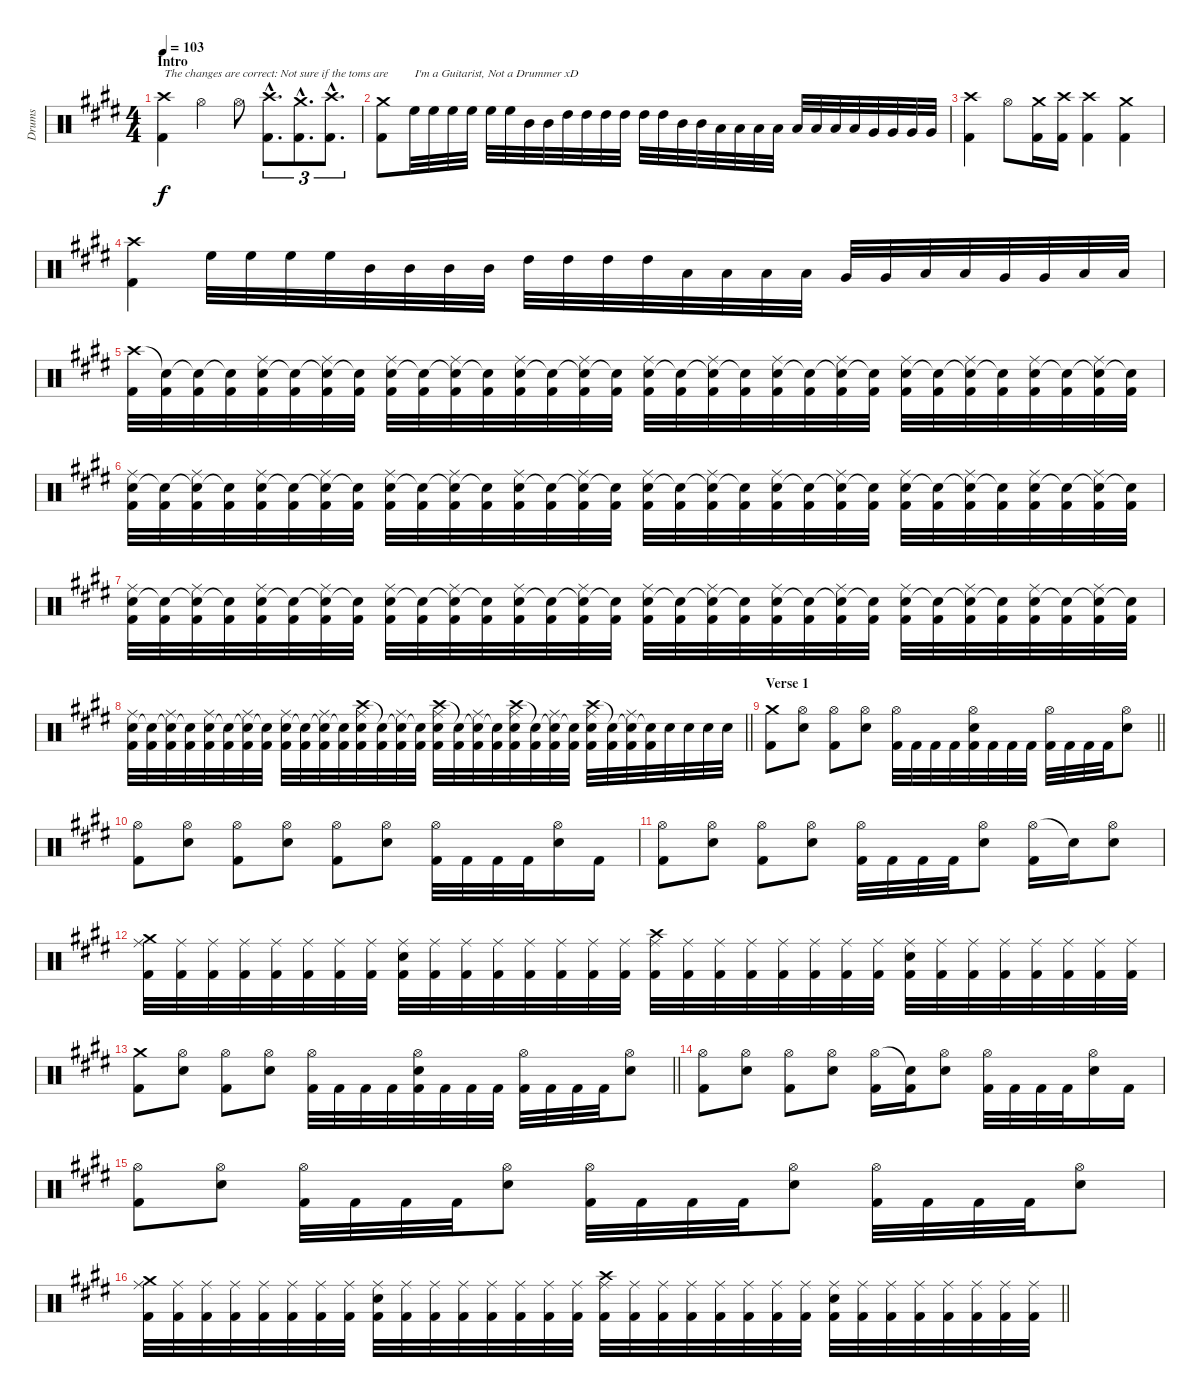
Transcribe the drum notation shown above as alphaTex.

\track ("Drums" "Drums") {instrument percussion}
\staff {score}
\articulation defaults
\ts (4 4)
\section ("" "Intro")
\tempo 103
\clef neutral
\ks c#minor
("Crash high (hit)" "Kick (hit) 2").4{txt "The changes are correct: Not sure if the toms are" dy f} "Hi-Hat (open)".4 "Hi-Hat (open)".8 ("Crash high (hit)"{hac} "Kick (hit) 2"{hac}).8{d tu (3 2)} ("Crash medium (hit)"{hac} "Kick (hit) 2"{hac}).8{d tu (3 2)} ("Crash high (hit)"{hac} "Kick (hit) 2"{hac}).8{d tu (3 2)} |
("Crash medium (hit)" "Kick (hit) 2").8 "High Floor Tom (hit)".32{txt "I'm a Guitarist, Not a Drummer xD"} "High Floor Tom (hit)".32 "High Floor Tom (hit)".32 "High Floor Tom (hit)".32 "High Floor Tom (hit)".32 "High Floor Tom (hit)".32 "Mid Tom (hit)".32 "Mid Tom (hit)".32 "High Tom (hit)".32 "High Tom (hit)".32 "High Tom (hit)".32 "High Tom (hit)".32 "High Tom (hit)".32 "High Tom (hit)".32 "Mid Tom (hit)".32 "Mid Tom (hit)".32 "Low Tom (hit)".32 "Low Tom (hit)".32 "Low Tom (hit)".32 "Low Tom (hit)".32 "Low Tom (hit)".32 "Low Tom (hit)".32 "Low Floor Tom (hit)".32 "Low Floor Tom (hit)".32 "Very Low Tom (hit)".32 "Very Low Tom (hit)".32 "Very Low Tom (hit)".32 "Very Low Tom (hit)".32 |
("Crash high (hit)" "Kick (hit) 2").4 "Hi-Hat (open)".8 ("Crash medium (hit)" "Kick (hit) 2").16 ("Crash high (hit)" "Kick (hit) 2").16 ("Crash high (hit)" "Kick (hit) 2").4 ("Crash medium (hit)" "Kick (hit) 2").4 |
("Crash high (hit)" "Kick (hit) 2").4 "High Floor Tom (hit)".32 "High Floor Tom (hit)".32 "High Floor Tom (hit)".32 "High Floor Tom (hit)".32 "Mid Tom (hit)".32 "Mid Tom (hit)".32 "Mid Tom (hit)".32 "Mid Tom (hit)".32 "High Tom (hit)".32 "High Tom (hit)".32 "High Tom (hit)".32 "High Tom (hit)".32 "Low Tom (hit)".32 "Low Tom (hit)".32 "Low Tom (hit)".32 "Low Tom (hit)".32 "Very Low Tom (hit)".32 "Very Low Tom (hit)".32 "Low Floor Tom (hit)".32 "Low Floor Tom (hit)".32 "Very Low Tom (hit)".32 "Very Low Tom (hit)".32 "Low Floor Tom (hit)".32 "Low Floor Tom (hit)".32 |
("Crash high (hit)" "Kick (hit) 2").32 ("Snare (hit)"{t} "Kick (hit) 2").32 ("Snare (hit)"{t} "Kick (hit) 2").32 ("Snare (hit)"{t} "Kick (hit) 2").32 ("Snare (hit) 2" "Ride (middle)" "Kick (hit) 2").32 ("Snare (hit)"{t} "Kick (hit) 2").32 ("Snare (hit)"{t} "Ride (middle)" "Kick (hit) 2").32 ("Snare (hit)"{t} "Kick (hit) 2").32 ("Snare (hit) 2" "Ride (middle)" "Kick (hit) 2").32 ("Snare (hit)"{t} "Kick (hit) 2").32 ("Snare (hit)"{t} "Ride (middle)" "Kick (hit) 2").32 ("Snare (hit)"{t} "Kick (hit) 2").32 ("Snare (hit) 2" "Ride (middle)" "Kick (hit) 2").32 ("Snare (hit)"{t} "Kick (hit) 2").32 ("Snare (hit)"{t} "Ride (middle)" "Kick (hit) 2").32 ("Snare (hit)"{t} "Kick (hit) 2").32 ("Snare (hit) 2" "Ride (middle)" "Kick (hit) 2").32 ("Snare (hit)"{t} "Kick (hit) 2").32 ("Snare (hit)"{t} "Ride (middle)" "Kick (hit) 2").32 ("Snare (hit)"{t} "Kick (hit) 2").32 ("Snare (hit) 2" "Ride (middle)" "Kick (hit) 2").32 ("Snare (hit)"{t} "Kick (hit) 2").32 ("Snare (hit)"{t} "Ride (middle)" "Kick (hit) 2").32 ("Snare (hit)"{t} "Kick (hit) 2").32 ("Snare (hit) 2" "Ride (middle)" "Kick (hit) 2").32 ("Snare (hit)"{t} "Kick (hit) 2").32 ("Snare (hit)"{t} "Ride (middle)" "Kick (hit) 2").32 ("Snare (hit)"{t} "Kick (hit) 2").32 ("Snare (hit) 2" "Ride (middle)" "Kick (hit) 2").32 ("Snare (hit)"{t} "Kick (hit) 2").32 ("Snare (hit)"{t} "Ride (middle)" "Kick (hit) 2").32 ("Snare (hit)"{t} "Kick (hit) 2").32 |
("Snare (hit) 2" "Ride (middle)" "Kick (hit) 2").32 ("Snare (hit)"{t} "Kick (hit) 2").32 ("Snare (hit)"{t} "Ride (middle)" "Kick (hit) 2").32 ("Snare (hit)"{t} "Kick (hit) 2").32 ("Snare (hit) 2" "Ride (middle)" "Kick (hit) 2").32 ("Snare (hit)"{t} "Kick (hit) 2").32 ("Snare (hit)"{t} "Ride (middle)" "Kick (hit) 2").32 ("Snare (hit)"{t} "Kick (hit) 2").32 ("Snare (hit) 2" "Ride (middle)" "Kick (hit) 2").32 ("Snare (hit)"{t} "Kick (hit) 2").32 ("Snare (hit)"{t} "Ride (middle)" "Kick (hit) 2").32 ("Snare (hit)"{t} "Kick (hit) 2").32 ("Snare (hit) 2" "Ride (middle)" "Kick (hit) 2").32 ("Snare (hit)"{t} "Kick (hit) 2").32 ("Snare (hit)"{t} "Ride (middle)" "Kick (hit) 2").32 ("Snare (hit)"{t} "Kick (hit) 2").32 ("Snare (hit) 2" "Ride (middle)" "Kick (hit) 2").32 ("Snare (hit)"{t} "Kick (hit) 2").32 ("Snare (hit)"{t} "Ride (middle)" "Kick (hit) 2").32 ("Snare (hit)"{t} "Kick (hit) 2").32 ("Snare (hit) 2" "Ride (middle)" "Kick (hit) 2").32 ("Snare (hit)"{t} "Kick (hit) 2").32 ("Snare (hit)"{t} "Ride (middle)" "Kick (hit) 2").32 ("Snare (hit)"{t} "Kick (hit) 2").32 ("Snare (hit) 2" "Ride (middle)" "Kick (hit) 2").32 ("Snare (hit)"{t} "Kick (hit) 2").32 ("Snare (hit)"{t} "Ride (middle)" "Kick (hit) 2").32 ("Snare (hit)"{t} "Kick (hit) 2").32 ("Snare (hit) 2" "Ride (middle)" "Kick (hit) 2").32 ("Snare (hit)"{t} "Kick (hit) 2").32 ("Snare (hit)"{t} "Ride (middle)" "Kick (hit) 2").32 ("Snare (hit)"{t} "Kick (hit) 2").32 |
("Snare (hit) 2" "Ride (middle)" "Kick (hit) 2").32 ("Snare (hit)"{t} "Kick (hit) 2").32 ("Snare (hit)"{t} "Ride (middle)" "Kick (hit) 2").32 ("Snare (hit)"{t} "Kick (hit) 2").32 ("Snare (hit) 2" "Ride (middle)" "Kick (hit) 2").32 ("Snare (hit)"{t} "Kick (hit) 2").32 ("Snare (hit)"{t} "Ride (middle)" "Kick (hit) 2").32 ("Snare (hit)"{t} "Kick (hit) 2").32 ("Snare (hit) 2" "Ride (middle)" "Kick (hit) 2").32 ("Snare (hit)"{t} "Kick (hit) 2").32 ("Snare (hit)"{t} "Ride (middle)" "Kick (hit) 2").32 ("Snare (hit)"{t} "Kick (hit) 2").32 ("Snare (hit) 2" "Ride (middle)" "Kick (hit) 2").32 ("Snare (hit)"{t} "Kick (hit) 2").32 ("Snare (hit)"{t} "Ride (middle)" "Kick (hit) 2").32 ("Snare (hit)"{t} "Kick (hit) 2").32 ("Snare (hit) 2" "Ride (middle)" "Kick (hit) 2").32 ("Snare (hit)"{t} "Kick (hit) 2").32 ("Snare (hit)"{t} "Ride (middle)" "Kick (hit) 2").32 ("Snare (hit)"{t} "Kick (hit) 2").32 ("Snare (hit) 2" "Ride (middle)" "Kick (hit) 2").32 ("Snare (hit)"{t} "Kick (hit) 2").32 ("Snare (hit)"{t} "Ride (middle)" "Kick (hit) 2").32 ("Snare (hit)"{t} "Kick (hit) 2").32 ("Snare (hit) 2" "Ride (middle)" "Kick (hit) 2").32 ("Snare (hit)"{t} "Kick (hit) 2").32 ("Snare (hit)"{t} "Ride (middle)" "Kick (hit) 2").32 ("Snare (hit)"{t} "Kick (hit) 2").32 ("Snare (hit) 2" "Ride (middle)" "Kick (hit) 2").32 ("Snare (hit)"{t} "Kick (hit) 2").32 ("Snare (hit)"{t} "Ride (middle)" "Kick (hit) 2").32 ("Snare (hit)"{t} "Kick (hit) 2").32 |
\barLineRight lightlight
("Snare (hit) 2" "Ride (middle)" "Kick (hit) 2").32 ("Snare (hit)"{t} "Kick (hit) 2").32 ("Snare (hit)"{t} "Ride (middle)" "Kick (hit) 2").32 ("Snare (hit)"{t} "Kick (hit) 2").32 ("Snare (hit) 2" "Ride (middle)" "Kick (hit) 2").32 ("Snare (hit)"{t} "Kick (hit) 2").32 ("Snare (hit)"{t} "Ride (middle)" "Kick (hit) 2").32 ("Snare (hit)"{t} "Kick (hit) 2").32 ("Snare (hit) 2" "Ride (middle)" "Kick (hit) 2").32 ("Snare (hit)"{t} "Kick (hit) 2").32 ("Snare (hit)"{t} "Ride (middle)" "Kick (hit) 2").32 ("Snare (hit)"{t} "Kick (hit) 2").32 ("Crash high (hit)" "Snare (hit) 2" "Ride (middle)" "Kick (hit) 2").32 ("Snare (hit)"{t} "Kick (hit) 2").32 ("Snare (hit)"{t} "Ride (middle)" "Kick (hit) 2").32 ("Snare (hit)"{t} "Kick (hit) 2").32 ("Crash high (hit)" "Snare (hit) 2" "Ride (middle)" "Kick (hit) 2").32 ("Snare (hit)"{t} "Kick (hit) 2").32 ("Snare (hit)"{t} "Ride (middle)" "Kick (hit) 2").32 ("Snare (hit)"{t} "Kick (hit) 2").32 ("Crash high (hit)" "Snare (hit) 2" "Ride (middle)" "Kick (hit) 2").32 ("Snare (hit)"{t} "Kick (hit) 2").32 ("Snare (hit)"{t} "Ride (middle)" "Kick (hit) 2").32 ("Snare (hit)"{t} "Kick (hit) 2").32 ("Crash high (hit)" "Snare (hit) 2" "Ride (middle)" "Kick (hit) 2").32 ("Snare (hit)"{t} "Kick (hit) 2").32 ("Snare (hit)"{t} "Ride (middle)" "Kick (hit) 2").32 ("Snare (hit)"{t} "Kick (hit) 2").32 "Snare (hit) 2".32 "Snare (hit) 2".32 "Snare (hit) 2".32 "Snare (hit) 2".32 |
\section ("" "Verse 1")
\barLineRight lightlight
("Crash medium (hit)" "Kick (hit) 2").8 ("Hi-Hat (open)" "Snare (hit) 2").8 ("Hi-Hat (open)" "Kick (hit) 2").8 ("Hi-Hat (open)" "Snare (hit) 2").8 ("Hi-Hat (open)" "Kick (hit) 2").32 "Kick (hit) 2".32 "Kick (hit) 2".32 "Kick (hit) 2".32 ("Hi-Hat (open)" "Snare (hit) 2" "Kick (hit) 2").32 "Kick (hit) 2".32 "Kick (hit) 2".32 "Kick (hit) 2".32 ("Hi-Hat (open)" "Kick (hit) 2").32 "Kick (hit) 2".32 "Kick (hit) 2".32 "Kick (hit) 2".32 ("Hi-Hat (open)" "Snare (hit) 2").8 |
("Hi-Hat (open)" "Kick (hit) 2").8 ("Hi-Hat (open)" "Snare (hit) 2").8 ("Hi-Hat (open)" "Kick (hit) 2").8 ("Hi-Hat (open)" "Snare (hit) 2").8 ("Hi-Hat (open)" "Kick (hit) 2").8 ("Hi-Hat (open)" "Snare (hit) 2").8 ("Hi-Hat (open)" "Kick (hit) 2").32 "Kick (hit) 2".32 "Kick (hit) 2".32 "Kick (hit) 2".32 ("Hi-Hat (open)" "Snare (hit) 2").16 "Kick (hit) 2".16 |
("Hi-Hat (open)" "Kick (hit) 2").8 ("Hi-Hat (open)" "Snare (hit) 2").8 ("Hi-Hat (open)" "Kick (hit) 2").8 ("Hi-Hat (open)" "Snare (hit) 2").8 ("Hi-Hat (open)" "Kick (hit) 2").32 "Kick (hit) 2".32 "Kick (hit) 2".32 "Kick (hit) 2".32 ("Hi-Hat (open)" "Snare (hit) 2").8 ("Hi-Hat (open)" "Kick (hit) 2").16 "Snare (hit)"{t}.16 ("Hi-Hat (open)" "Snare (hit) 2").8 |
("Crash medium (hit)" "Ride (middle)" "Kick (hit) 2").32 ("Ride (middle)" "Kick (hit) 2").32 ("Ride (middle)" "Kick (hit) 2").32 ("Ride (middle)" "Kick (hit) 2").32 ("Ride (middle)" "Kick (hit) 2").32 ("Ride (middle)" "Kick (hit) 2").32 ("Ride (middle)" "Kick (hit) 2").32 ("Ride (middle)" "Kick (hit) 2").32 ("Snare (hit) 2" "Ride (middle)" "Kick (hit) 2").32 ("Ride (middle)" "Kick (hit) 2").32 ("Ride (middle)" "Kick (hit) 2").32 ("Ride (middle)" "Kick (hit) 2").32 ("Ride (middle)" "Kick (hit) 2").32 ("Ride (middle)" "Kick (hit) 2").32 ("Ride (middle)" "Kick (hit) 2").32 ("Ride (middle)" "Kick (hit) 2").32 ("Crash high (hit)" "Ride (middle)" "Kick (hit) 2").32 ("Ride (middle)" "Kick (hit) 2").32 ("Ride (middle)" "Kick (hit) 2").32 ("Ride (middle)" "Kick (hit) 2").32 ("Ride (middle)" "Kick (hit) 2").32 ("Ride (middle)" "Kick (hit) 2").32 ("Ride (middle)" "Kick (hit) 2").32 ("Ride (middle)" "Kick (hit) 2").32 ("Snare (hit) 2" "Ride (middle)" "Kick (hit) 2").32 ("Ride (middle)" "Kick (hit) 2").32 ("Ride (middle)" "Kick (hit) 2").32 ("Ride (middle)" "Kick (hit) 2").32 ("Ride (middle)" "Kick (hit) 2").32 ("Ride (middle)" "Kick (hit) 2").32 ("Ride (middle)" "Kick (hit) 2").32 ("Ride (middle)" "Kick (hit) 2").32 |
\barLineRight lightlight
("Crash medium (hit)" "Kick (hit) 2").8 ("Hi-Hat (open)" "Snare (hit) 2").8 ("Hi-Hat (open)" "Kick (hit) 2").8 ("Hi-Hat (open)" "Snare (hit) 2").8 ("Hi-Hat (open)" "Kick (hit) 2").32 "Kick (hit) 2".32 "Kick (hit) 2".32 "Kick (hit) 2".32 ("Hi-Hat (open)" "Snare (hit) 2" "Kick (hit) 2").32 "Kick (hit) 2".32 "Kick (hit) 2".32 "Kick (hit) 2".32 ("Hi-Hat (open)" "Kick (hit) 2").32 "Kick (hit) 2".32 "Kick (hit) 2".32 "Kick (hit) 2".32 ("Hi-Hat (open)" "Snare (hit) 2").8 |
("Hi-Hat (open)" "Kick (hit) 2").8 ("Hi-Hat (open)" "Snare (hit) 2").8 ("Hi-Hat (open)" "Kick (hit) 2").8 ("Hi-Hat (open)" "Snare (hit) 2").8 ("Hi-Hat (open)" "Kick (hit) 2").16 ("Snare (hit)"{t} "Kick (hit) 2").16 ("Hi-Hat (open)" "Snare (hit) 2").8 ("Hi-Hat (open)" "Kick (hit) 2").32 "Kick (hit) 2".32 "Kick (hit) 2".32 "Kick (hit) 2".32 ("Hi-Hat (open)" "Snare (hit) 2").16 "Kick (hit) 2".16 |
("Hi-Hat (open)" "Kick (hit) 2").8 ("Hi-Hat (open)" "Snare (hit) 2").8 ("Hi-Hat (open)" "Kick (hit) 2").32 "Kick (hit) 2".32 "Kick (hit) 2".32 "Kick (hit) 2".32 ("Hi-Hat (open)" "Snare (hit) 2").8 ("Hi-Hat (open)" "Kick (hit) 2").32 "Kick (hit) 2".32 "Kick (hit) 2".32 "Kick (hit) 2".32 ("Hi-Hat (open)" "Snare (hit) 2").8 ("Hi-Hat (open)" "Kick (hit) 2").32 "Kick (hit) 2".32 "Kick (hit) 2".32 "Kick (hit) 2".32 ("Hi-Hat (open)" "Snare (hit) 2").8 |
\barLineRight lightlight
("Crash medium (hit)" "Ride (middle)" "Kick (hit) 2").32 ("Ride (middle)" "Kick (hit) 2").32 ("Ride (middle)" "Kick (hit) 2").32 ("Ride (middle)" "Kick (hit) 2").32 ("Ride (middle)" "Kick (hit) 2").32 ("Ride (middle)" "Kick (hit) 2").32 ("Ride (middle)" "Kick (hit) 2").32 ("Ride (middle)" "Kick (hit) 2").32 ("Snare (hit) 2" "Ride (middle)" "Kick (hit) 2").32 ("Ride (middle)" "Kick (hit) 2").32 ("Ride (middle)" "Kick (hit) 2").32 ("Ride (middle)" "Kick (hit) 2").32 ("Ride (middle)" "Kick (hit) 2").32 ("Ride (middle)" "Kick (hit) 2").32 ("Ride (middle)" "Kick (hit) 2").32 ("Ride (middle)" "Kick (hit) 2").32 ("Crash high (hit)" "Ride (middle)" "Kick (hit) 2").32 ("Ride (middle)" "Kick (hit) 2").32 ("Ride (middle)" "Kick (hit) 2").32 ("Ride (middle)" "Kick (hit) 2").32 ("Ride (middle)" "Kick (hit) 2").32 ("Ride (middle)" "Kick (hit) 2").32 ("Ride (middle)" "Kick (hit) 2").32 ("Ride (middle)" "Kick (hit) 2").32 ("Snare (hit) 2" "Ride (middle)" "Kick (hit) 2").32 ("Ride (middle)" "Kick (hit) 2").32 ("Ride (middle)" "Kick (hit) 2").32 ("Ride (middle)" "Kick (hit) 2").32 ("Ride (middle)" "Kick (hit) 2").32 ("Ride (middle)" "Kick (hit) 2").32 ("Ride (middle)" "Kick (hit) 2").32 ("Ride (middle)" "Kick (hit) 2").32
